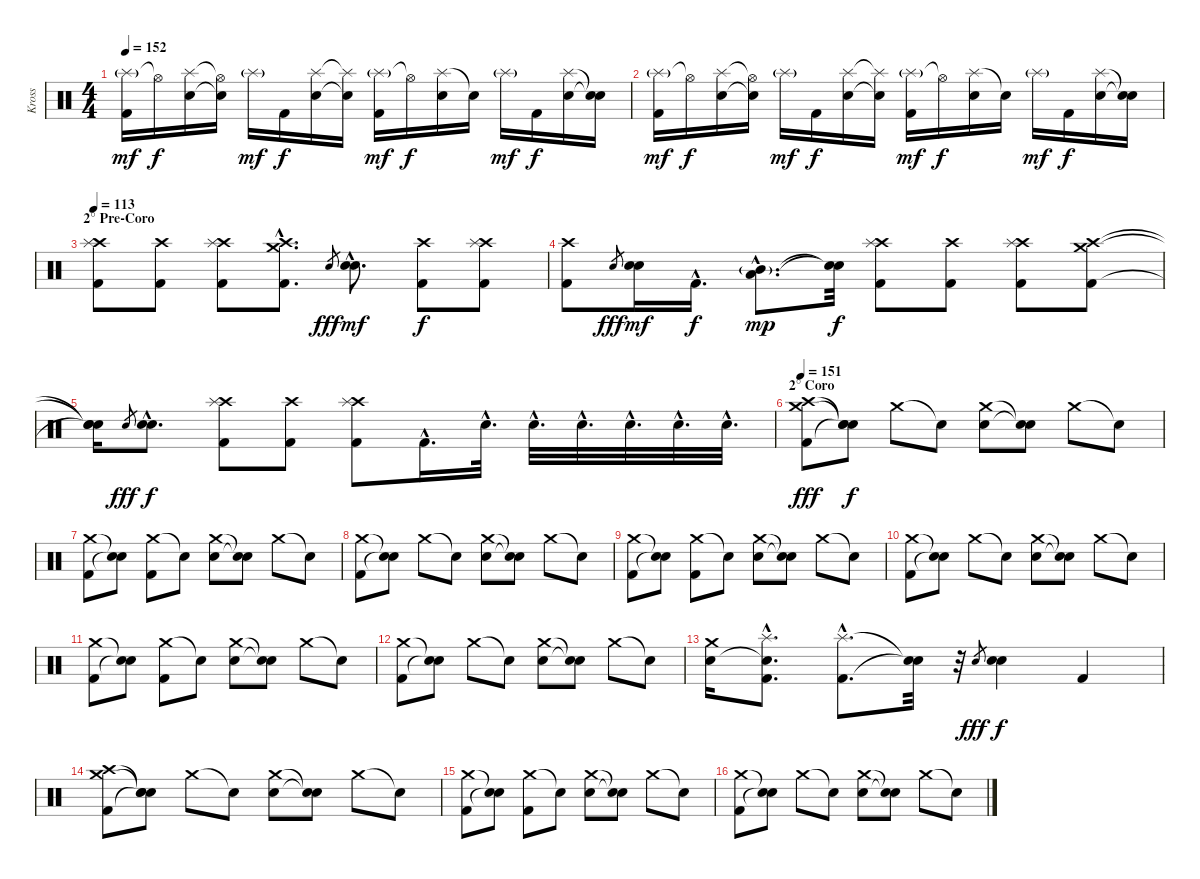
\track ("Kross" "Kross") {instrument percussion}
\staff {score}
\articulation defaults
\ts (4 4)
\tempo 152
\clef neutral
\ks c
("Splash (hit)"{g} "Kick (hit) 2").16{dy mf} "Hi-Hat (open)"{t}.16{dy f} ("Splash (hit)" "Electric Snare (hit)").16 ("Hi-Hat (open)"{t} "Electric Snare (hit)"{t}).16 "Splash (hit)"{g}.16{dy mf} "Kick (hit) 2".16{dy f} ("Splash (hit)" "Electric Snare (hit)").16 ("Splash (hit)"{t} "Electric Snare (hit)"{t}).16 ("Splash (hit)"{g} "Kick (hit) 2").16{dy mf} "Hi-Hat (open)"{t}.16{dy f} ("Splash (hit)" "Electric Snare (hit)").16 "Snare (hit)"{t}.16 "Splash (hit)"{g}.16{dy mf} "Kick (hit) 2".16{dy f} ("Splash (hit)" "Electric Snare (hit)").16 ("Snare (hit)"{t} "Snare (hit)"{t}).16 |
("Splash (hit)"{g} "Kick (hit) 2").16{dy mf} "Hi-Hat (open)"{t}.16{dy f} ("Splash (hit)" "Electric Snare (hit)").16 ("Hi-Hat (open)"{t} "Electric Snare (hit)"{t}).16 "Splash (hit)"{g}.16{dy mf} "Kick (hit) 2".16{dy f} ("Splash (hit)" "Electric Snare (hit)").16 ("Splash (hit)"{t} "Electric Snare (hit)"{t}).16 ("Splash (hit)"{g} "Kick (hit) 2").16{dy mf} "Hi-Hat (open)"{t}.16{dy f} ("Splash (hit)" "Electric Snare (hit)").16 "Snare (hit)"{t}.16 "Splash (hit)"{g}.16{dy mf} "Kick (hit) 2".16{dy f} ("Splash (hit)" "Electric Snare (hit)").16 ("Snare (hit)"{t} "Snare (hit)"{t}).16 |
\section ("" "2° Pre-Coro ")
\tempo 113
("Crash high (hit)" "Splash (hit)" "Kick (hit) 2").8 ("Crash high (hit)" "Kick (hit) 2").8 ("Crash high (hit)" "Splash (hit)" "Kick (hit) 2").8 ("Crash high (hit)"{hac} "Crash medium (hit)"{hac} "Kick (hit) 2"{hac}).8{d} "Electric Snare (hit)".8{gr dy fff} ("Electric Snare (hit)"{hac} "Electric Snare (hit)"{hac}).8{d dy mf} ("Crash high (hit)" "Kick (hit) 2").8{dy f} ("Crash high (hit)" "Splash (hit)" "Kick (hit) 2").8 |
("Crash high (hit)" "Kick (hit) 2").8 "Electric Snare (hit)".8{gr dy fff} ("Electric Snare (hit)" "Electric Snare (hit)").16{dy mf} "Kick (hit) 2"{hac}.16{d dy f} ("Low Tom (hit)"{hac} "Mid Tom (hit)"{g hac}).8{d dy mp} ("Snare (hit)"{t} "Snare (hit)"{t}).32{dy f} ("Crash high (hit)" "Splash (hit)" "Kick (hit) 2").8 ("Crash high (hit)" "Kick (hit) 2").8 ("Crash high (hit)" "Splash (hit)" "Kick (hit) 2").8 ("Crash high (hit)" "Crash medium (hit)" "Kick (hit) 2").8 |
("Snare (hit)"{t} "Snare (hit)"{t} "Snare (hit)"{t}).16 "Electric Snare (hit)".8{gr dy fff} ("Electric Snare (hit)"{hac} "Electric Snare (hit)"{hac}).8{d dy f} ("Crash high (hit)" "Splash (hit)" "Kick (hit) 2").8 ("Crash high (hit)" "Kick (hit) 2").8 ("Crash high (hit)" "Splash (hit)" "Kick (hit) 2").8 "Kick (hit) 2"{hac}.16{d} "Electric Snare (hit)"{hac}.32{d} "Electric Snare (hit)"{hac}.32{d} "Electric Snare (hit)"{hac}.32{d} "Electric Snare (hit)"{hac}.32{d} "Electric Snare (hit)"{hac}.32{d} "Electric Snare (hit)"{hac}.32{d} |
\section ("" "2° Coro ")
\tempo 151
("Crash medium (hit)" "Crash high (hit)" "Kick (hit) 2").8{dy fff} ("Snare (hit)"{t} "Snare (hit)"{t} "Snare (hit)"{t}).8{dy f} "Crash medium (hit)".8 "Snare (hit)"{t}.8 ("Crash medium (hit)" "Electric Snare (hit)").8 ("Snare (hit)"{t} "Snare (hit)"{t}).8 "Crash medium (hit)".8 "Snare (hit)"{t}.8 |
("Crash medium (hit)" "Kick (hit) 2").8 ("Snare (hit)"{t} "Snare (hit)"{t}).8 ("Crash medium (hit)" "Kick (hit) 2").8 "Snare (hit)"{t}.8 ("Crash medium (hit)" "Electric Snare (hit)").8 ("Snare (hit)"{t} "Snare (hit)"{t}).8 "Crash medium (hit)".8 "Snare (hit)"{t}.8 |
("Crash medium (hit)" "Kick (hit) 2").8 ("Snare (hit)"{t} "Snare (hit)"{t}).8 "Crash medium (hit)".8 "Snare (hit)"{t}.8 ("Crash medium (hit)" "Electric Snare (hit)").8 ("Snare (hit)"{t} "Snare (hit)"{t}).8 "Crash medium (hit)".8 "Snare (hit)"{t}.8 |
("Crash medium (hit)" "Kick (hit) 2").8 ("Snare (hit)"{t} "Snare (hit)"{t}).8 ("Crash medium (hit)" "Kick (hit) 2").8 "Snare (hit)"{t}.8 ("Crash medium (hit)" "Electric Snare (hit)").8 ("Snare (hit)"{t} "Snare (hit)"{t}).8 "Crash medium (hit)".8 "Snare (hit)"{t}.8 |
("Crash medium (hit)" "Kick (hit) 2").8 ("Snare (hit)"{t} "Snare (hit)"{t}).8 "Crash medium (hit)".8 "Snare (hit)"{t}.8 ("Crash medium (hit)" "Electric Snare (hit)").8 ("Snare (hit)"{t} "Snare (hit)"{t}).8 "Crash medium (hit)".8 "Snare (hit)"{t}.8 |
("Crash medium (hit)" "Kick (hit) 2").8 ("Snare (hit)"{t} "Snare (hit)"{t}).8 ("Crash medium (hit)" "Kick (hit) 2").8 "Snare (hit)"{t}.8 ("Crash medium (hit)" "Electric Snare (hit)").8 ("Snare (hit)"{t} "Snare (hit)"{t}).8 "Crash medium (hit)".8 "Snare (hit)"{t}.8 |
("Crash medium (hit)" "Kick (hit) 2").8 ("Snare (hit)"{t} "Snare (hit)"{t}).8 "Crash medium (hit)".8 "Snare (hit)"{t}.8 ("Crash medium (hit)" "Electric Snare (hit)").8 ("Snare (hit)"{t} "Snare (hit)"{t}).8 "Crash medium (hit)".8 "Snare (hit)"{t}.8 |
("Crash medium (hit)" "Electric Snare (hit)").16 ("Splash (hit)"{hac} "Snare (hit)"{hac t} "Kick (hit) 2"{hac}).8{d} ("Splash (hit)"{hac} "Kick (hit) 2"{hac}).8{d} ("Snare (hit)"{t} "Snare (hit)"{t}).32 r.32 "Electric Snare (hit)".8{gr dy fff} ("Electric Snare (hit)" "Electric Snare (hit)").4{dy f} "Kick (hit) 2".4 |
("Crash medium (hit)" "Crash high (hit)" "Kick (hit) 2").8 ("Snare (hit)"{t} "Snare (hit)"{t} "Snare (hit)"{t}).8 "Crash medium (hit)".8 "Snare (hit)"{t}.8 ("Crash medium (hit)" "Electric Snare (hit)").8 ("Snare (hit)"{t} "Snare (hit)"{t}).8 "Crash medium (hit)".8 "Snare (hit)"{t}.8 |
("Crash medium (hit)" "Kick (hit) 2").8 ("Snare (hit)"{t} "Snare (hit)"{t}).8 ("Crash medium (hit)" "Kick (hit) 2").8 "Snare (hit)"{t}.8 ("Crash medium (hit)" "Electric Snare (hit)").8 ("Snare (hit)"{t} "Snare (hit)"{t}).8 "Crash medium (hit)".8 "Snare (hit)"{t}.8 |
("Crash medium (hit)" "Kick (hit) 2").8 ("Snare (hit)"{t} "Snare (hit)"{t}).8 "Crash medium (hit)".8 "Snare (hit)"{t}.8 ("Crash medium (hit)" "Electric Snare (hit)").8 ("Snare (hit)"{t} "Snare (hit)"{t}).8 "Crash medium (hit)".8 "Snare (hit)"{t}.8
